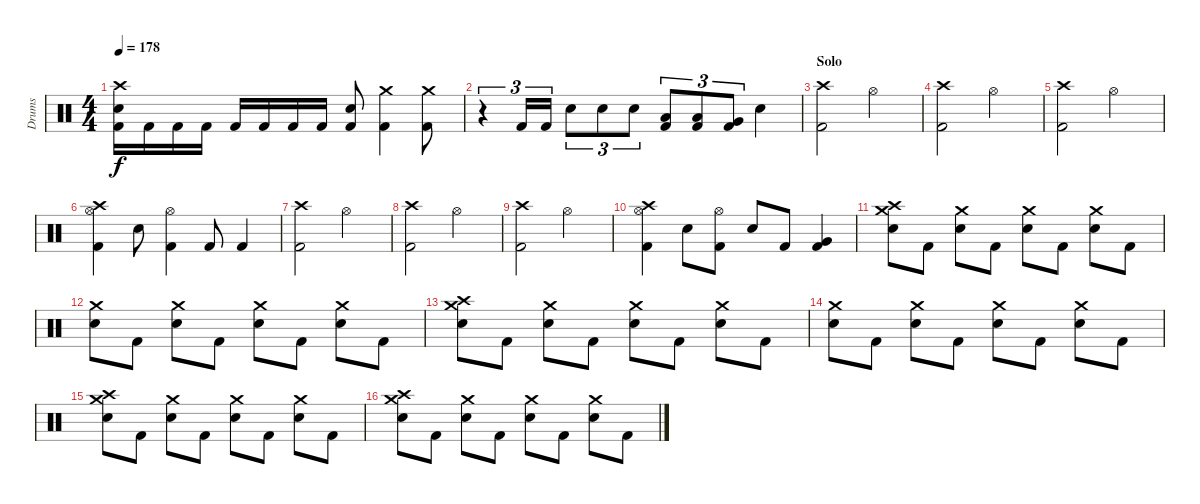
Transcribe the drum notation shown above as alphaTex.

\track ("Drums" "Drums") {instrument percussion}
\staff {score}
\articulation defaults
\ts (4 4)
\tempo 178
\clef neutral
\ks c
("Crash high (hit)" "Electric Snare (hit)" "Kick (hit) 2").16{dy f} "Kick (hit) 2".16 "Kick (hit) 2".16 "Kick (hit) 2".16 "Kick (hit) 2".16 "Kick (hit) 2".16 "Kick (hit) 2".16 "Kick (hit) 2".16 ("Electric Snare (hit)" "Kick (hit) 2").8 ("Crash medium (hit)" "Kick (hit) 2").4 ("Crash medium (hit)" "Kick (hit) 2").8 |
r.4{tu (3 2)} "Kick (hit) 2".16{tu (3 2)} "Kick (hit) 2".16{tu (3 2)} "Electric Snare (hit)".8{tu (3 2)} "Electric Snare (hit)".8{tu (3 2)} "Electric Snare (hit)".8{tu (3 2)} ("Low Tom (hit)" "Kick (hit) 2").8{tu (3 2)} ("Low Tom (hit)" "Kick (hit) 2").8{tu (3 2)} ("Very Low Tom (hit)" "Kick (hit) 2").8{tu (3 2)} "Electric Snare (hit)".4 |
\section ("" "Solo")
("Crash high (hit)" "Kick (hit) 2").2 "Hi-Hat (open)".2 |
("Crash high (hit)" "Kick (hit) 2").2 "Hi-Hat (open)".2 |
("Crash high (hit)" "Kick (hit) 2").2 "Hi-Hat (open)".2 |
("Crash high (hit)" "Hi-Hat (open)" "Kick (hit) 2").4 "Electric Snare (hit)".8 ("Hi-Hat (open)" "Kick (hit) 2").4 "Kick (hit) 2".8 "Kick (hit) 2".4 |
("Crash high (hit)" "Kick (hit) 2").2 "Hi-Hat (open)".2 |
("Crash high (hit)" "Kick (hit) 2").2 "Hi-Hat (open)".2 |
("Crash high (hit)" "Kick (hit) 2").2 "Hi-Hat (open)".2 |
("Crash high (hit)" "Hi-Hat (open)" "Kick (hit) 2").4 "Electric Snare (hit)".8 ("Hi-Hat (open)" "Kick (hit) 2").8 "Electric Snare (hit)".8 "Kick (hit) 2".8 ("Very Low Tom (hit)" "Kick (hit) 2").4 |
("Crash high (hit)" "Crash medium (hit)" "Electric Snare (hit)").8 "Kick (hit) 2".8 ("Crash medium (hit)" "Electric Snare (hit)").8 "Kick (hit) 2".8 ("Crash medium (hit)" "Electric Snare (hit)").8 "Kick (hit) 2".8 ("Crash medium (hit)" "Electric Snare (hit)").8 "Kick (hit) 2".8 |
("Crash medium (hit)" "Electric Snare (hit)").8 "Kick (hit) 2".8 ("Crash medium (hit)" "Electric Snare (hit)").8 "Kick (hit) 2".8 ("Crash medium (hit)" "Electric Snare (hit)").8 "Kick (hit) 2".8 ("Crash medium (hit)" "Electric Snare (hit)").8 "Kick (hit) 2".8 |
("Crash high (hit)" "Crash medium (hit)" "Electric Snare (hit)").8 "Kick (hit) 2".8 ("Crash medium (hit)" "Electric Snare (hit)").8 "Kick (hit) 2".8 ("Crash medium (hit)" "Electric Snare (hit)").8 "Kick (hit) 2".8 ("Crash medium (hit)" "Electric Snare (hit)").8 "Kick (hit) 2".8 |
("Crash medium (hit)" "Electric Snare (hit)").8 "Kick (hit) 2".8 ("Crash medium (hit)" "Electric Snare (hit)").8 "Kick (hit) 2".8 ("Crash medium (hit)" "Electric Snare (hit)").8 "Kick (hit) 2".8 ("Crash medium (hit)" "Electric Snare (hit)").8 "Kick (hit) 2".8 |
("Crash high (hit)" "Crash medium (hit)" "Electric Snare (hit)").8 "Kick (hit) 2".8 ("Crash medium (hit)" "Electric Snare (hit)").8 "Kick (hit) 2".8 ("Crash medium (hit)" "Electric Snare (hit)").8 "Kick (hit) 2".8 ("Crash medium (hit)" "Electric Snare (hit)").8 "Kick (hit) 2".8 |
("Crash high (hit)" "Crash medium (hit)" "Electric Snare (hit)").8 "Kick (hit) 2".8 ("Crash medium (hit)" "Electric Snare (hit)").8 "Kick (hit) 2".8 ("Crash medium (hit)" "Electric Snare (hit)").8 "Kick (hit) 2".8 ("Crash medium (hit)" "Electric Snare (hit)").8 "Kick (hit) 2".8
